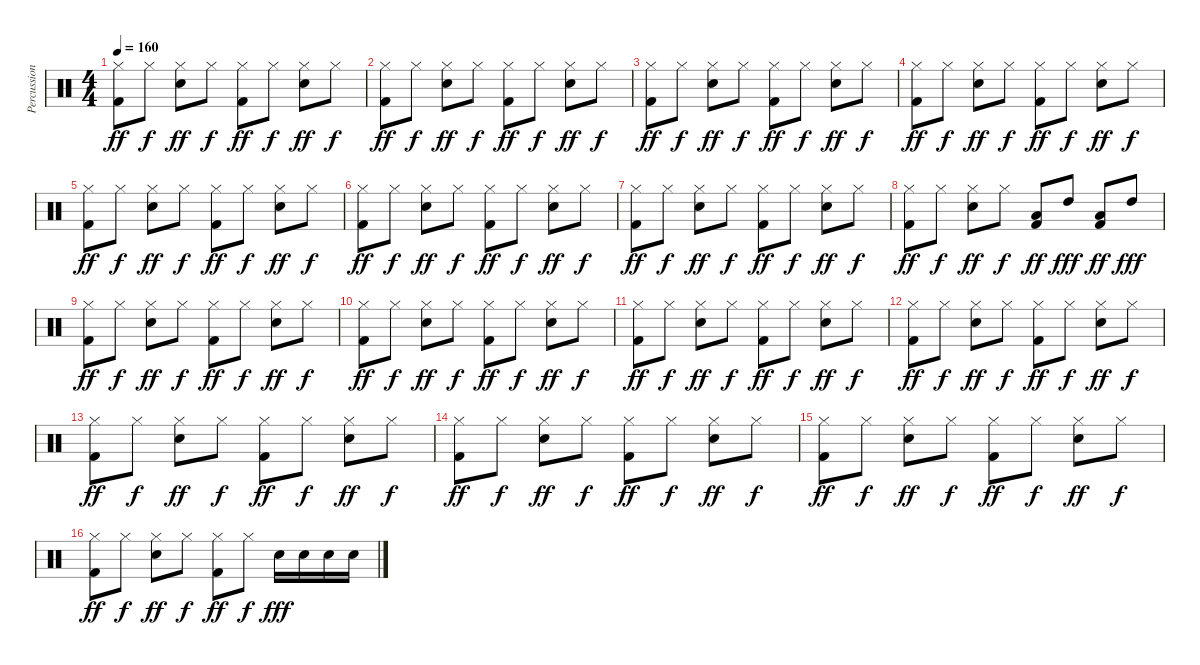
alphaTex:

\track ("Percussion" "Percussion") {instrument percussion}
\staff {score}
\articulation defaults
\ts (4 4)
\tempo 160
\clef neutral
\ks c
("Hi-Hat (closed)" "Kick (hit) 2").8{dy ff} "Hi-Hat (closed)".8{dy f} ("Hi-Hat (closed)" "Snare (hit) 2").8{dy ff} "Hi-Hat (closed)".8{dy f} ("Hi-Hat (closed)" "Kick (hit) 2").8{dy ff} "Hi-Hat (closed)".8{dy f} ("Hi-Hat (closed)" "Snare (hit) 2").8{dy ff} "Hi-Hat (closed)".8{dy f} |
("Hi-Hat (closed)" "Kick (hit) 2").8{dy ff} "Hi-Hat (closed)".8{dy f} ("Hi-Hat (closed)" "Snare (hit) 2").8{dy ff} "Hi-Hat (closed)".8{dy f} ("Hi-Hat (closed)" "Kick (hit) 2").8{dy ff} "Hi-Hat (closed)".8{dy f} ("Hi-Hat (closed)" "Snare (hit) 2").8{dy ff} "Hi-Hat (closed)".8{dy f} |
("Hi-Hat (closed)" "Kick (hit) 2").8{dy ff} "Hi-Hat (closed)".8{dy f} ("Hi-Hat (closed)" "Snare (hit) 2").8{dy ff} "Hi-Hat (closed)".8{dy f} ("Hi-Hat (closed)" "Kick (hit) 2").8{dy ff} "Hi-Hat (closed)".8{dy f} ("Hi-Hat (closed)" "Snare (hit) 2").8{dy ff} "Hi-Hat (closed)".8{dy f} |
("Hi-Hat (closed)" "Kick (hit) 2").8{dy ff} "Hi-Hat (closed)".8{dy f} ("Hi-Hat (closed)" "Snare (hit) 2").8{dy ff} "Hi-Hat (closed)".8{dy f} ("Hi-Hat (closed)" "Kick (hit) 2").8{dy ff} "Hi-Hat (closed)".8{dy f} ("Hi-Hat (closed)" "Snare (hit) 2").8{dy ff} "Hi-Hat (closed)".8{dy f} |
("Hi-Hat (closed)" "Kick (hit) 2").8{dy ff} "Hi-Hat (closed)".8{dy f} ("Hi-Hat (closed)" "Snare (hit) 2").8{dy ff} "Hi-Hat (closed)".8{dy f} ("Hi-Hat (closed)" "Kick (hit) 2").8{dy ff} "Hi-Hat (closed)".8{dy f} ("Hi-Hat (closed)" "Snare (hit) 2").8{dy ff} "Hi-Hat (closed)".8{dy f} |
("Hi-Hat (closed)" "Kick (hit) 2").8{dy ff} "Hi-Hat (closed)".8{dy f} ("Hi-Hat (closed)" "Snare (hit) 2").8{dy ff} "Hi-Hat (closed)".8{dy f} ("Hi-Hat (closed)" "Kick (hit) 2").8{dy ff} "Hi-Hat (closed)".8{dy f} ("Hi-Hat (closed)" "Snare (hit) 2").8{dy ff} "Hi-Hat (closed)".8{dy f} |
("Hi-Hat (closed)" "Kick (hit) 2").8{dy ff} "Hi-Hat (closed)".8{dy f} ("Hi-Hat (closed)" "Snare (hit) 2").8{dy ff} "Hi-Hat (closed)".8{dy f} ("Hi-Hat (closed)" "Kick (hit) 2").8{dy ff} "Hi-Hat (closed)".8{dy f} ("Hi-Hat (closed)" "Snare (hit) 2").8{dy ff} "Hi-Hat (closed)".8{dy f} |
("Hi-Hat (closed)" "Kick (hit) 2").8{dy ff} "Hi-Hat (closed)".8{dy f} ("Hi-Hat (closed)" "Snare (hit) 2").8{dy ff} "Hi-Hat (closed)".8{dy f} ("Low Floor Tom (hit)" "Kick (hit) 2").8{dy ff} "High Tom (hit)".8{dy fff} ("Low Floor Tom (hit)" "Kick (hit) 2").8{dy ff} "High Tom (hit)".8{dy fff} |
("Hi-Hat (closed)" "Kick (hit) 2").8{dy ff} "Hi-Hat (closed)".8{dy f} ("Hi-Hat (closed)" "Snare (hit) 2").8{dy ff} "Hi-Hat (closed)".8{dy f} ("Hi-Hat (closed)" "Kick (hit) 2").8{dy ff} "Hi-Hat (closed)".8{dy f} ("Hi-Hat (closed)" "Snare (hit) 2").8{dy ff} "Hi-Hat (closed)".8{dy f} |
("Hi-Hat (closed)" "Kick (hit) 2").8{dy ff} "Hi-Hat (closed)".8{dy f} ("Hi-Hat (closed)" "Snare (hit) 2").8{dy ff} "Hi-Hat (closed)".8{dy f} ("Hi-Hat (closed)" "Kick (hit) 2").8{dy ff} "Hi-Hat (closed)".8{dy f} ("Hi-Hat (closed)" "Snare (hit) 2").8{dy ff} "Hi-Hat (closed)".8{dy f} |
("Hi-Hat (closed)" "Kick (hit) 2").8{dy ff} "Hi-Hat (closed)".8{dy f} ("Hi-Hat (closed)" "Snare (hit) 2").8{dy ff} "Hi-Hat (closed)".8{dy f} ("Hi-Hat (closed)" "Kick (hit) 2").8{dy ff} "Hi-Hat (closed)".8{dy f} ("Hi-Hat (closed)" "Snare (hit) 2").8{dy ff} "Hi-Hat (closed)".8{dy f} |
("Hi-Hat (closed)" "Kick (hit) 2").8{dy ff} "Hi-Hat (closed)".8{dy f} ("Hi-Hat (closed)" "Snare (hit) 2").8{dy ff} "Hi-Hat (closed)".8{dy f} ("Hi-Hat (closed)" "Kick (hit) 2").8{dy ff} "Hi-Hat (closed)".8{dy f} ("Hi-Hat (closed)" "Snare (hit) 2").8{dy ff} "Hi-Hat (closed)".8{dy f} |
("Hi-Hat (closed)" "Kick (hit) 2").8{dy ff} "Hi-Hat (closed)".8{dy f} ("Hi-Hat (closed)" "Snare (hit) 2").8{dy ff} "Hi-Hat (closed)".8{dy f} ("Hi-Hat (closed)" "Kick (hit) 2").8{dy ff} "Hi-Hat (closed)".8{dy f} ("Hi-Hat (closed)" "Snare (hit) 2").8{dy ff} "Hi-Hat (closed)".8{dy f} |
("Hi-Hat (closed)" "Kick (hit) 2").8{dy ff} "Hi-Hat (closed)".8{dy f} ("Hi-Hat (closed)" "Snare (hit) 2").8{dy ff} "Hi-Hat (closed)".8{dy f} ("Hi-Hat (closed)" "Kick (hit) 2").8{dy ff} "Hi-Hat (closed)".8{dy f} ("Hi-Hat (closed)" "Snare (hit) 2").8{dy ff} "Hi-Hat (closed)".8{dy f} |
("Hi-Hat (closed)" "Kick (hit) 2").8{dy ff} "Hi-Hat (closed)".8{dy f} ("Hi-Hat (closed)" "Snare (hit) 2").8{dy ff} "Hi-Hat (closed)".8{dy f} ("Hi-Hat (closed)" "Kick (hit) 2").8{dy ff} "Hi-Hat (closed)".8{dy f} ("Hi-Hat (closed)" "Snare (hit) 2").8{dy ff} "Hi-Hat (closed)".8{dy f} |
("Hi-Hat (closed)" "Kick (hit) 2").8{dy ff} "Hi-Hat (closed)".8{dy f} ("Hi-Hat (closed)" "Snare (hit) 2").8{dy ff} "Hi-Hat (closed)".8{dy f} ("Hi-Hat (closed)" "Kick (hit) 2").8{dy ff} "Hi-Hat (closed)".8{dy f} "Snare (hit) 2".16{dy fff} "Snare (hit) 2".16 "Snare (hit) 2".16 "Snare (hit) 2".16
